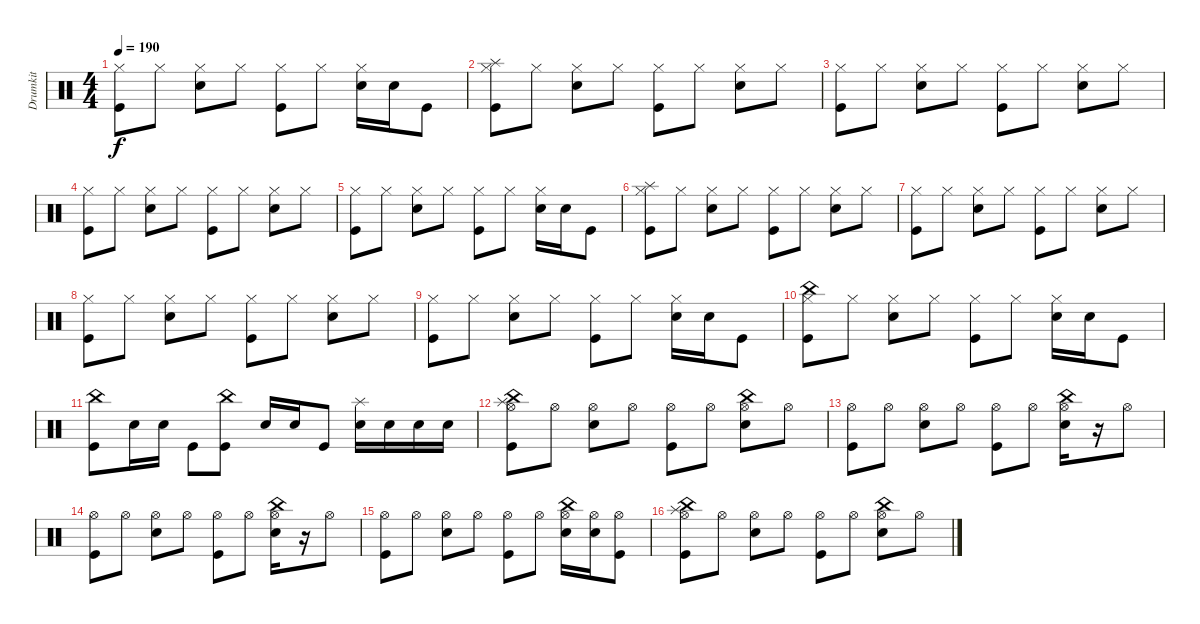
\track ("Drumkit" "Drumkit") {instrument percussion}
\staff {score}
\articulation defaults
\ts (4 4)
\tempo 190
\clef neutral
\ks c
("Kick (hit)" "Hi-Hat (closed)").8{dy f} "Hi-Hat (closed)".8 ("Snare (hit) 2" "Hi-Hat (closed)").8 "Hi-Hat (closed)".8 ("Hi-Hat (closed)" "Kick (hit)").8 "Hi-Hat (closed)".8 ("Hi-Hat (closed)" "Snare (hit) 2").16 "Snare (hit) 2".16 "Kick (hit)".8 |
("Kick (hit)" "Hi-Hat (closed)" "Splash (hit)").8 "Hi-Hat (closed)".8 ("Snare (hit) 2" "Hi-Hat (closed)").8 "Hi-Hat (closed)".8 ("Hi-Hat (closed)" "Kick (hit)").8 "Hi-Hat (closed)".8 ("Hi-Hat (closed)" "Snare (hit) 2").8 "Hi-Hat (closed)".8 |
("Kick (hit)" "Hi-Hat (closed)").8 "Hi-Hat (closed)".8 ("Snare (hit) 2" "Hi-Hat (closed)").8 "Hi-Hat (closed)".8 ("Hi-Hat (closed)" "Kick (hit)").8 "Hi-Hat (closed)".8 ("Hi-Hat (closed)" "Snare (hit) 2").8 "Hi-Hat (closed)".8 |
("Kick (hit)" "Hi-Hat (closed)").8 "Hi-Hat (closed)".8 ("Snare (hit) 2" "Hi-Hat (closed)").8 "Hi-Hat (closed)".8 ("Hi-Hat (closed)" "Kick (hit)").8 "Hi-Hat (closed)".8 ("Hi-Hat (closed)" "Snare (hit) 2").8 "Hi-Hat (closed)".8 |
("Kick (hit)" "Hi-Hat (closed)").8 "Hi-Hat (closed)".8 ("Snare (hit) 2" "Hi-Hat (closed)").8 "Hi-Hat (closed)".8 ("Hi-Hat (closed)" "Kick (hit)").8 "Hi-Hat (closed)".8 ("Hi-Hat (closed)" "Snare (hit) 2").16 "Snare (hit) 2".16 "Kick (hit)".8 |
("Kick (hit)" "Hi-Hat (closed)" "Splash (hit)").8 "Hi-Hat (closed)".8 ("Snare (hit) 2" "Hi-Hat (closed)").8 "Hi-Hat (closed)".8 ("Hi-Hat (closed)" "Kick (hit)").8 "Hi-Hat (closed)".8 ("Hi-Hat (closed)" "Snare (hit) 2").8 "Hi-Hat (closed)".8 |
("Kick (hit)" "Hi-Hat (closed)").8 "Hi-Hat (closed)".8 ("Snare (hit) 2" "Hi-Hat (closed)").8 "Hi-Hat (closed)".8 ("Hi-Hat (closed)" "Kick (hit)").8 "Hi-Hat (closed)".8 ("Hi-Hat (closed)" "Snare (hit) 2").8 "Hi-Hat (closed)".8 |
("Kick (hit)" "Hi-Hat (closed)").8 "Hi-Hat (closed)".8 ("Snare (hit) 2" "Hi-Hat (closed)").8 "Hi-Hat (closed)".8 ("Hi-Hat (closed)" "Kick (hit)").8 "Hi-Hat (closed)".8 ("Hi-Hat (closed)" "Snare (hit) 2").8 "Hi-Hat (closed)".8 |
("Kick (hit)" "Hi-Hat (closed)").8 "Hi-Hat (closed)".8 ("Snare (hit) 2" "Hi-Hat (closed)").8 "Hi-Hat (closed)".8 ("Hi-Hat (closed)" "Kick (hit)").8 "Hi-Hat (closed)".8 ("Hi-Hat (closed)" "Snare (hit) 2").16 "Snare (hit) 2".16 "Kick (hit)".8 |
("Kick (hit)" "Hi-Hat (closed)" "China (hit)").8 "Hi-Hat (closed)".8 ("Snare (hit) 2" "Hi-Hat (closed)").8 "Hi-Hat (closed)".8 ("Hi-Hat (closed)" "Kick (hit)").8 "Hi-Hat (closed)".8 ("Hi-Hat (closed)" "Snare (hit) 2").16 "Snare (hit) 2".16 "Kick (hit)".8 |
("Kick (hit)" "China (hit)").8 "Snare (hit) 2".16 "Snare (hit) 2".16 "Kick (hit)".8 ("Kick (hit)" "China (hit)").8 "Snare (hit) 2".16 "Snare (hit) 2".16 "Kick (hit)".8 ("Snare (hit) 2" "Splash (hit)").16 "Snare (hit) 2".16 "Snare (hit) 2".16 "Snare (hit) 2".16 |
("Kick (hit)" "Hi-Hat (open)" "Splash (hit)" "China (hit)").8 "Hi-Hat (open)".8 ("Snare (hit) 2" "Hi-Hat (open)").8 "Hi-Hat (open)".8 ("Kick (hit)" "Hi-Hat (open)").8 "Hi-Hat (open)".8 ("Snare (hit) 2" "Hi-Hat (open)" "China (hit)").8 "Hi-Hat (open)".8 |
("Kick (hit)" "Hi-Hat (open)").8 "Hi-Hat (open)".8 ("Snare (hit) 2" "Hi-Hat (open)").8 "Hi-Hat (open)".8 ("Kick (hit)" "Hi-Hat (open)").8 "Hi-Hat (open)".8 ("Snare (hit) 2" "Hi-Hat (open)" "China (hit)").16 r.16 "Hi-Hat (open)".8 |
("Kick (hit)" "Hi-Hat (open)").8 "Hi-Hat (open)".8 ("Snare (hit) 2" "Hi-Hat (open)").8 "Hi-Hat (open)".8 ("Kick (hit)" "Hi-Hat (open)").8 "Hi-Hat (open)".8 ("Snare (hit) 2" "Hi-Hat (open)" "China (hit)").16 r.16 "Hi-Hat (open)".8 |
("Kick (hit)" "Hi-Hat (open)").8 "Hi-Hat (open)".8 ("Snare (hit) 2" "Hi-Hat (open)").8 "Hi-Hat (open)".8 ("Kick (hit)" "Hi-Hat (open)").8 "Hi-Hat (open)".8 ("Snare (hit) 2" "Hi-Hat (open)" "China (hit)").16 ("Snare (hit) 2" "Hi-Hat (open)").16 ("Kick (hit)" "Hi-Hat (open)").8 |
("Kick (hit)" "Hi-Hat (open)" "Splash (hit)" "China (hit)").8 "Hi-Hat (open)".8 ("Snare (hit) 2" "Hi-Hat (open)").8 "Hi-Hat (open)".8 ("Kick (hit)" "Hi-Hat (open)").8 "Hi-Hat (open)".8 ("Snare (hit) 2" "Hi-Hat (open)" "China (hit)").8 "Hi-Hat (open)".8
